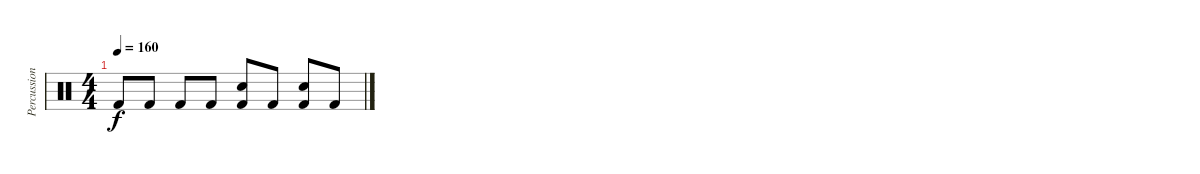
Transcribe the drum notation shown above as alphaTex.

\track ("Percussion" "Percussion") {instrument percussion}
\staff {score}
\articulation defaults
\ts (4 4)
\tempo 160
\clef neutral
\ks c "Kick (hit) 2".8{dy f} "Kick (hit) 2".8 "Kick (hit) 2".8 "Kick (hit) 2".8
("Electric Snare (hit)" "Kick (hit) 2").8 "Kick (hit) 2".8 ("Electric Snare (hit)" "Kick (hit) 2").8 "Kick (hit) 2".8
